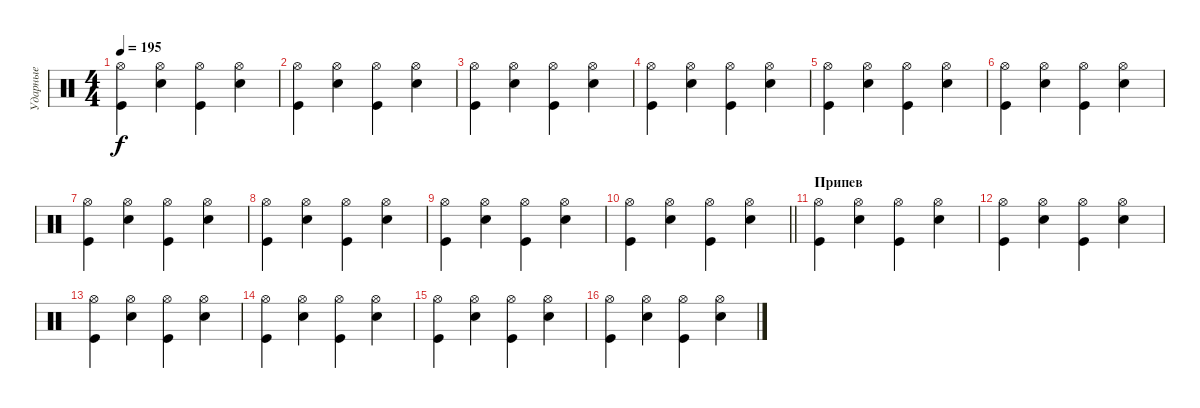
\track ("Ударные" "Ударные") {instrument percussion}
\staff {score}
\articulation defaults
\ts (4 4)
\tempo 195
\clef neutral
\ks c
("Hi-Hat (open)" "Kick (hit)").4{dy f} ("Hi-Hat (open)" "Electric Snare (hit)").4 ("Hi-Hat (open)" "Kick (hit)").4 ("Hi-Hat (open)" "Electric Snare (hit)").4 |
("Hi-Hat (open)" "Kick (hit)").4 ("Hi-Hat (open)" "Electric Snare (hit)").4 ("Hi-Hat (open)" "Kick (hit)").4 ("Hi-Hat (open)" "Electric Snare (hit)").4 |
("Hi-Hat (open)" "Kick (hit)").4 ("Hi-Hat (open)" "Electric Snare (hit)").4 ("Hi-Hat (open)" "Kick (hit)").4 ("Hi-Hat (open)" "Electric Snare (hit)").4 |
("Hi-Hat (open)" "Kick (hit)").4 ("Hi-Hat (open)" "Electric Snare (hit)").4 ("Hi-Hat (open)" "Kick (hit)").4 ("Hi-Hat (open)" "Electric Snare (hit)").4 |
("Hi-Hat (open)" "Kick (hit)").4 ("Hi-Hat (open)" "Electric Snare (hit)").4 ("Hi-Hat (open)" "Kick (hit)").4 ("Hi-Hat (open)" "Electric Snare (hit)").4 |
("Hi-Hat (open)" "Kick (hit)").4 ("Hi-Hat (open)" "Electric Snare (hit)").4 ("Hi-Hat (open)" "Kick (hit)").4 ("Hi-Hat (open)" "Electric Snare (hit)").4 |
("Hi-Hat (open)" "Kick (hit)").4 ("Hi-Hat (open)" "Electric Snare (hit)").4 ("Hi-Hat (open)" "Kick (hit)").4 ("Hi-Hat (open)" "Electric Snare (hit)").4 |
("Hi-Hat (open)" "Kick (hit)").4 ("Hi-Hat (open)" "Electric Snare (hit)").4 ("Hi-Hat (open)" "Kick (hit)").4 ("Hi-Hat (open)" "Electric Snare (hit)").4 |
("Hi-Hat (open)" "Kick (hit)").4 ("Hi-Hat (open)" "Electric Snare (hit)").4 ("Hi-Hat (open)" "Kick (hit)").4 ("Hi-Hat (open)" "Electric Snare (hit)").4 |
\barLineRight lightlight
("Hi-Hat (open)" "Kick (hit)").4 ("Hi-Hat (open)" "Electric Snare (hit)").4 ("Hi-Hat (open)" "Kick (hit)").4 ("Hi-Hat (open)" "Electric Snare (hit)").4 |
\section ("" "Припев")
("Hi-Hat (open)" "Kick (hit)").4 ("Hi-Hat (open)" "Electric Snare (hit)").4 ("Hi-Hat (open)" "Kick (hit)").4 ("Hi-Hat (open)" "Electric Snare (hit)").4 |
("Hi-Hat (open)" "Kick (hit)").4 ("Hi-Hat (open)" "Electric Snare (hit)").4 ("Hi-Hat (open)" "Kick (hit)").4 ("Hi-Hat (open)" "Electric Snare (hit)").4 |
("Hi-Hat (open)" "Kick (hit)").4 ("Hi-Hat (open)" "Electric Snare (hit)").4 ("Hi-Hat (open)" "Kick (hit)").4 ("Hi-Hat (open)" "Electric Snare (hit)").4 |
("Hi-Hat (open)" "Kick (hit)").4 ("Hi-Hat (open)" "Electric Snare (hit)").4 ("Hi-Hat (open)" "Kick (hit)").4 ("Hi-Hat (open)" "Electric Snare (hit)").4 |
("Hi-Hat (open)" "Kick (hit)").4 ("Hi-Hat (open)" "Electric Snare (hit)").4 ("Hi-Hat (open)" "Kick (hit)").4 ("Hi-Hat (open)" "Electric Snare (hit)").4 |
("Hi-Hat (open)" "Kick (hit)").4 ("Hi-Hat (open)" "Electric Snare (hit)").4 ("Hi-Hat (open)" "Kick (hit)").4 ("Hi-Hat (open)" "Electric Snare (hit)").4
